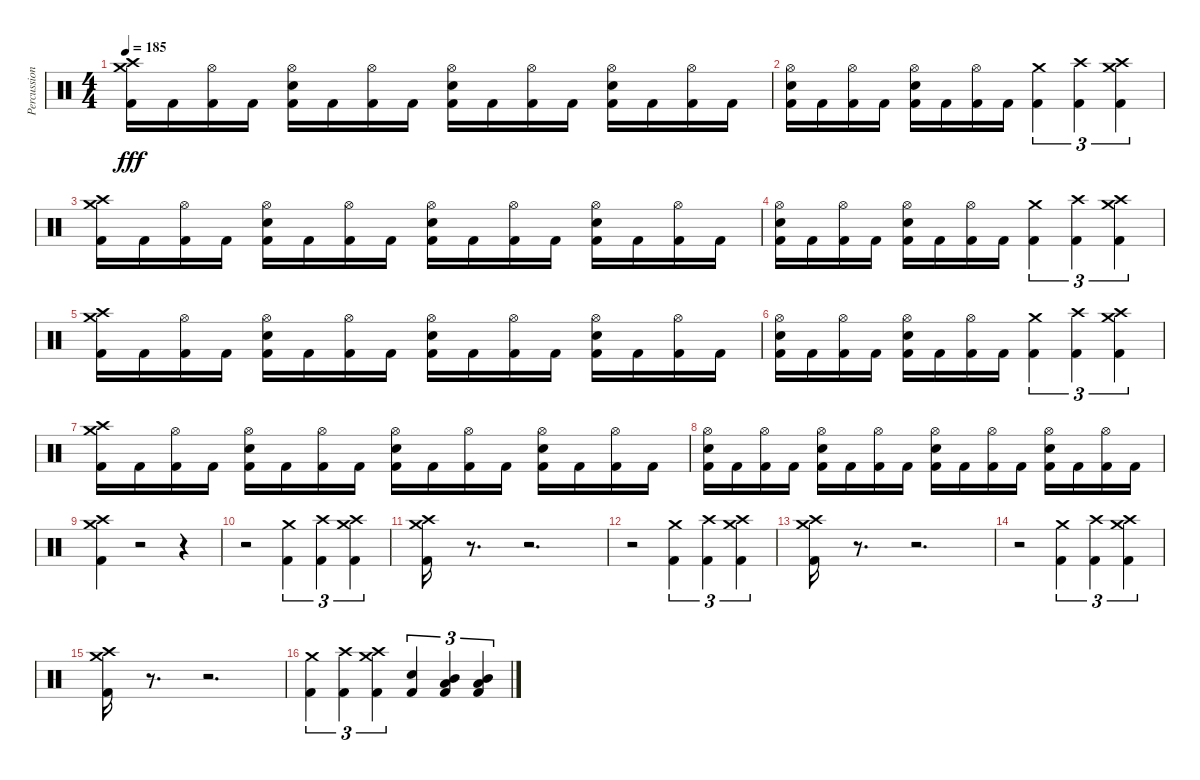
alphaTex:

\track ("Percussion" "Percussion") {instrument percussion}
\staff {score}
\articulation defaults
\ts (4 4)
\tempo 185
\clef neutral
\ks c
("Kick (hit) 2" "Crash medium (hit)" "Crash high (hit)").16{dy fff} "Kick (hit) 2".16 ("Kick (hit) 2" "Hi-Hat (open)").16 "Kick (hit) 2".16 ("Kick (hit) 2" "Electric Snare (hit)" "Hi-Hat (open)").16 "Kick (hit) 2".16 ("Kick (hit) 2" "Hi-Hat (open)").16 "Kick (hit) 2".16 ("Kick (hit) 2" "Electric Snare (hit)" "Hi-Hat (open)").16 "Kick (hit) 2".16 ("Kick (hit) 2" "Hi-Hat (open)").16 "Kick (hit) 2".16 ("Kick (hit) 2" "Electric Snare (hit)" "Hi-Hat (open)").16 "Kick (hit) 2".16 ("Kick (hit) 2" "Hi-Hat (open)").16 "Kick (hit) 2".16 |
("Kick (hit) 2" "Electric Snare (hit)" "Hi-Hat (open)").16 "Kick (hit) 2".16 ("Kick (hit) 2" "Hi-Hat (open)").16 "Kick (hit) 2".16 ("Kick (hit) 2" "Electric Snare (hit)" "Hi-Hat (open)").16 "Kick (hit) 2".16 ("Kick (hit) 2" "Hi-Hat (open)").16 "Kick (hit) 2".16 ("Kick (hit) 2" "Crash medium (hit)").4{tu (3 2)} ("Kick (hit) 2" "Crash high (hit)").4{tu (3 2)} ("Kick (hit) 2" "Crash medium (hit)" "Crash high (hit)").4{tu (3 2)} |
("Kick (hit) 2" "Crash medium (hit)" "Crash high (hit)").16 "Kick (hit) 2".16 ("Kick (hit) 2" "Hi-Hat (open)").16 "Kick (hit) 2".16 ("Kick (hit) 2" "Electric Snare (hit)" "Hi-Hat (open)").16 "Kick (hit) 2".16 ("Kick (hit) 2" "Hi-Hat (open)").16 "Kick (hit) 2".16 ("Kick (hit) 2" "Electric Snare (hit)" "Hi-Hat (open)").16 "Kick (hit) 2".16 ("Kick (hit) 2" "Hi-Hat (open)").16 "Kick (hit) 2".16 ("Kick (hit) 2" "Electric Snare (hit)" "Hi-Hat (open)").16 "Kick (hit) 2".16 ("Kick (hit) 2" "Hi-Hat (open)").16 "Kick (hit) 2".16 |
("Kick (hit) 2" "Electric Snare (hit)" "Hi-Hat (open)").16 "Kick (hit) 2".16 ("Kick (hit) 2" "Hi-Hat (open)").16 "Kick (hit) 2".16 ("Kick (hit) 2" "Electric Snare (hit)" "Hi-Hat (open)").16 "Kick (hit) 2".16 ("Kick (hit) 2" "Hi-Hat (open)").16 "Kick (hit) 2".16 ("Kick (hit) 2" "Crash medium (hit)").4{tu (3 2)} ("Kick (hit) 2" "Crash high (hit)").4{tu (3 2)} ("Kick (hit) 2" "Crash medium (hit)" "Crash high (hit)").4{tu (3 2)} |
("Kick (hit) 2" "Crash medium (hit)" "Crash high (hit)").16 "Kick (hit) 2".16 ("Kick (hit) 2" "Hi-Hat (open)").16 "Kick (hit) 2".16 ("Kick (hit) 2" "Electric Snare (hit)" "Hi-Hat (open)").16 "Kick (hit) 2".16 ("Kick (hit) 2" "Hi-Hat (open)").16 "Kick (hit) 2".16 ("Kick (hit) 2" "Electric Snare (hit)" "Hi-Hat (open)").16 "Kick (hit) 2".16 ("Kick (hit) 2" "Hi-Hat (open)").16 "Kick (hit) 2".16 ("Kick (hit) 2" "Electric Snare (hit)" "Hi-Hat (open)").16 "Kick (hit) 2".16 ("Kick (hit) 2" "Hi-Hat (open)").16 "Kick (hit) 2".16 |
("Kick (hit) 2" "Electric Snare (hit)" "Hi-Hat (open)").16 "Kick (hit) 2".16 ("Kick (hit) 2" "Hi-Hat (open)").16 "Kick (hit) 2".16 ("Kick (hit) 2" "Electric Snare (hit)" "Hi-Hat (open)").16 "Kick (hit) 2".16 ("Kick (hit) 2" "Hi-Hat (open)").16 "Kick (hit) 2".16 ("Kick (hit) 2" "Crash medium (hit)").4{tu (3 2)} ("Kick (hit) 2" "Crash high (hit)").4{tu (3 2)} ("Kick (hit) 2" "Crash medium (hit)" "Crash high (hit)").4{tu (3 2)} |
("Kick (hit) 2" "Crash medium (hit)" "Crash high (hit)").16 "Kick (hit) 2".16 ("Kick (hit) 2" "Hi-Hat (open)").16 "Kick (hit) 2".16 ("Kick (hit) 2" "Electric Snare (hit)" "Hi-Hat (open)").16 "Kick (hit) 2".16 ("Kick (hit) 2" "Hi-Hat (open)").16 "Kick (hit) 2".16 ("Kick (hit) 2" "Electric Snare (hit)" "Hi-Hat (open)").16 "Kick (hit) 2".16 ("Kick (hit) 2" "Hi-Hat (open)").16 "Kick (hit) 2".16 ("Kick (hit) 2" "Electric Snare (hit)" "Hi-Hat (open)").16 "Kick (hit) 2".16 ("Kick (hit) 2" "Hi-Hat (open)").16 "Kick (hit) 2".16 |
("Kick (hit) 2" "Electric Snare (hit)" "Hi-Hat (open)").16 "Kick (hit) 2".16 ("Kick (hit) 2" "Hi-Hat (open)").16 "Kick (hit) 2".16 ("Kick (hit) 2" "Electric Snare (hit)" "Hi-Hat (open)").16 "Kick (hit) 2".16 ("Kick (hit) 2" "Hi-Hat (open)").16 "Kick (hit) 2".16 ("Kick (hit) 2" "Electric Snare (hit)" "Hi-Hat (open)").16 "Kick (hit) 2".16 ("Kick (hit) 2" "Hi-Hat (open)").16 "Kick (hit) 2".16 ("Kick (hit) 2" "Electric Snare (hit)" "Hi-Hat (open)").16 "Kick (hit) 2".16 ("Kick (hit) 2" "Hi-Hat (open)").16 "Kick (hit) 2".16 |
("Kick (hit) 2" "Crash medium (hit)" "Crash high (hit)").4 r.2 r.4 |
r.2 ("Kick (hit) 2" "Crash medium (hit)").4{tu (3 2)} ("Kick (hit) 2" "Crash high (hit)").4{tu (3 2)} ("Kick (hit) 2" "Crash medium (hit)" "Crash high (hit)").4{tu (3 2)} |
("Kick (hit) 2" "Crash medium (hit)" "Crash high (hit)").16 r.8{d} r.2{d} |
r.2 ("Kick (hit) 2" "Crash medium (hit)").4{tu (3 2)} ("Kick (hit) 2" "Crash high (hit)").4{tu (3 2)} ("Kick (hit) 2" "Crash medium (hit)" "Crash high (hit)").4{tu (3 2)} |
("Kick (hit) 2" "Crash medium (hit)" "Crash high (hit)").16 r.8{d} r.2{d} |
r.2 ("Kick (hit) 2" "Crash medium (hit)").4{tu (3 2)} ("Kick (hit) 2" "Crash high (hit)").4{tu (3 2)} ("Kick (hit) 2" "Crash medium (hit)" "Crash high (hit)").4{tu (3 2)} |
("Kick (hit) 2" "Crash medium (hit)" "Crash high (hit)").16 r.8{d} r.2{d} |
("Kick (hit) 2" "Crash medium (hit)").4{tu (3 2)} ("Kick (hit) 2" "Crash high (hit)").4{tu (3 2)} ("Kick (hit) 2" "Crash high (hit)" "Crash medium (hit)").4{tu (3 2)} ("Kick (hit) 2" "Electric Snare (hit)").4{tu (3 2)} ("Kick (hit) 2" "Low Tom (hit)" "Mid Tom (hit)").4{tu (3 2)} ("Kick (hit) 2" "Mid Tom (hit)" "Low Floor Tom (hit)").4{tu (3 2)}
